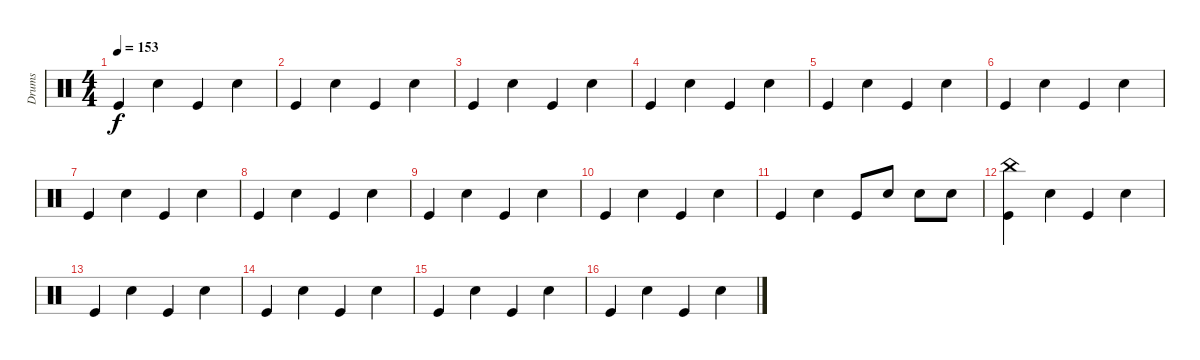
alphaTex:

\track ("Drums" "Drums") {instrument percussion}
\staff {score}
\articulation defaults
\ts (4 4)
\tempo 153
\clef neutral
\ks c "Kick (hit)".4{dy f} "Snare (hit) 2".4 "Kick (hit)".4 "Snare (hit) 2".4
|
"Kick (hit)".4 "Snare (hit) 2".4 "Kick (hit)".4 "Snare (hit) 2".4 |
"Kick (hit)".4 "Snare (hit) 2".4 "Kick (hit)".4 "Snare (hit) 2".4 |
"Kick (hit)".4 "Snare (hit) 2".4 "Kick (hit)".4 "Snare (hit) 2".4 |
"Kick (hit)".4 "Snare (hit) 2".4 "Kick (hit)".4 "Snare (hit) 2".4 |
"Kick (hit)".4 "Snare (hit) 2".4 "Kick (hit)".4 "Snare (hit) 2".4 |
"Kick (hit)".4 "Snare (hit) 2".4 "Kick (hit)".4 "Snare (hit) 2".4 |
"Kick (hit)".4 "Snare (hit) 2".4 "Kick (hit)".4 "Snare (hit) 2".4 |
"Kick (hit)".4 "Snare (hit) 2".4 "Kick (hit)".4 "Snare (hit) 2".4 |
"Kick (hit)".4 "Snare (hit) 2".4 "Kick (hit)".4 "Snare (hit) 2".4 |
"Kick (hit)".4 "Snare (hit) 2".4 "Kick (hit)".8 "Snare (hit) 2".8 "Snare (hit) 2".8 "Snare (hit) 2".8 |
("China (hit)" "Kick (hit)").4 "Snare (hit) 2".4 "Kick (hit)".4 "Snare (hit) 2".4 |
"Kick (hit)".4 "Snare (hit) 2".4 "Kick (hit)".4 "Snare (hit) 2".4 |
"Kick (hit)".4 "Snare (hit) 2".4 "Kick (hit)".4 "Snare (hit) 2".4 |
"Kick (hit)".4 "Snare (hit) 2".4 "Kick (hit)".4 "Snare (hit) 2".4 |
"Kick (hit)".4 "Snare (hit) 2".4 "Kick (hit)".4 "Snare (hit) 2".4
